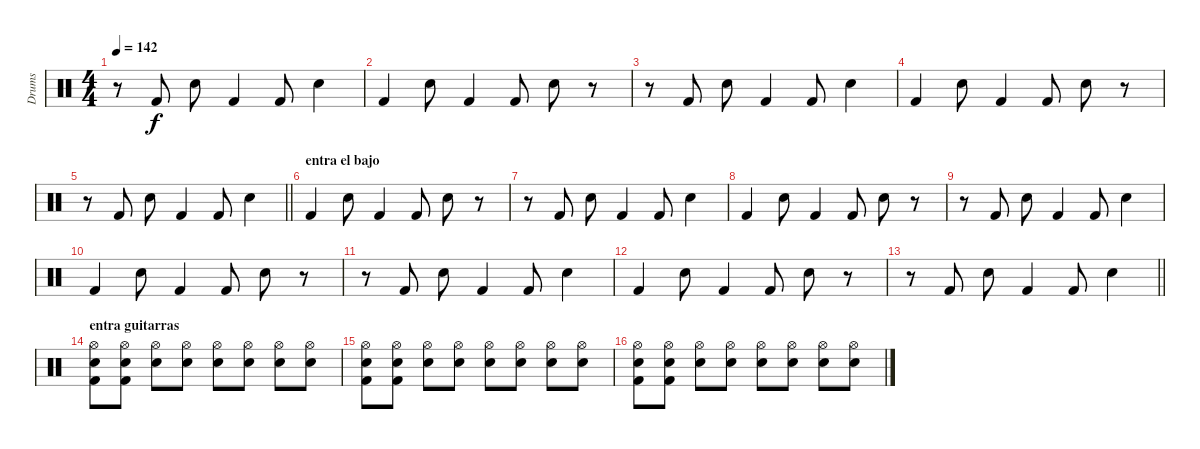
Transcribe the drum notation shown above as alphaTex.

\track ("Drums" "Drums") {instrument percussion}
\staff {score}
\articulation defaults
\ts (4 4)
\tempo 142
\clef neutral
\ks c
r.8{dy f} "Kick (hit) 2".8 "Electric Snare (hit)".8 "Kick (hit) 2".4 "Kick (hit) 2".8 "Electric Snare (hit)".4 |
"Kick (hit) 2".4 "Electric Snare (hit)".8 "Kick (hit) 2".4 "Kick (hit) 2".8 "Electric Snare (hit)".8 r.8 |
r.8 "Kick (hit) 2".8 "Electric Snare (hit)".8 "Kick (hit) 2".4 "Kick (hit) 2".8 "Electric Snare (hit)".4 |
"Kick (hit) 2".4 "Electric Snare (hit)".8 "Kick (hit) 2".4 "Kick (hit) 2".8 "Electric Snare (hit)".8 r.8 |
\barLineRight lightlight
r.8 "Kick (hit) 2".8 "Electric Snare (hit)".8 "Kick (hit) 2".4 "Kick (hit) 2".8 "Electric Snare (hit)".4 |
\section ("" "entra el bajo")
"Kick (hit) 2".4 "Electric Snare (hit)".8 "Kick (hit) 2".4 "Kick (hit) 2".8 "Electric Snare (hit)".8 r.8 |
r.8 "Kick (hit) 2".8 "Electric Snare (hit)".8 "Kick (hit) 2".4 "Kick (hit) 2".8 "Electric Snare (hit)".4 |
"Kick (hit) 2".4 "Electric Snare (hit)".8 "Kick (hit) 2".4 "Kick (hit) 2".8 "Electric Snare (hit)".8 r.8 |
r.8 "Kick (hit) 2".8 "Electric Snare (hit)".8 "Kick (hit) 2".4 "Kick (hit) 2".8 "Electric Snare (hit)".4 |
"Kick (hit) 2".4 "Electric Snare (hit)".8 "Kick (hit) 2".4 "Kick (hit) 2".8 "Electric Snare (hit)".8 r.8 |
r.8 "Kick (hit) 2".8 "Electric Snare (hit)".8 "Kick (hit) 2".4 "Kick (hit) 2".8 "Electric Snare (hit)".4 |
"Kick (hit) 2".4 "Electric Snare (hit)".8 "Kick (hit) 2".4 "Kick (hit) 2".8 "Electric Snare (hit)".8 r.8 |
\barLineRight lightlight
r.8 "Kick (hit) 2".8 "Electric Snare (hit)".8 "Kick (hit) 2".4 "Kick (hit) 2".8 "Electric Snare (hit)".4 |
\section ("" "entra guitarras")
("Electric Snare (hit)" "Hi-Hat (open)" "Kick (hit) 2").8 ("Electric Snare (hit)" "Hi-Hat (open)" "Kick (hit) 2").8 ("Electric Snare (hit)" "Hi-Hat (open)").8 ("Electric Snare (hit)" "Hi-Hat (open)").8 ("Electric Snare (hit)" "Hi-Hat (open)").8 ("Electric Snare (hit)" "Hi-Hat (open)").8 ("Electric Snare (hit)" "Hi-Hat (open)").8 ("Electric Snare (hit)" "Hi-Hat (open)").8 |
("Electric Snare (hit)" "Hi-Hat (open)" "Kick (hit) 2").8 ("Electric Snare (hit)" "Hi-Hat (open)" "Kick (hit) 2").8 ("Electric Snare (hit)" "Hi-Hat (open)").8 ("Electric Snare (hit)" "Hi-Hat (open)").8 ("Electric Snare (hit)" "Hi-Hat (open)").8 ("Electric Snare (hit)" "Hi-Hat (open)").8 ("Electric Snare (hit)" "Hi-Hat (open)").8 ("Electric Snare (hit)" "Hi-Hat (open)").8 |
("Electric Snare (hit)" "Hi-Hat (open)" "Kick (hit) 2").8 ("Electric Snare (hit)" "Hi-Hat (open)" "Kick (hit) 2").8 ("Electric Snare (hit)" "Hi-Hat (open)").8 ("Electric Snare (hit)" "Hi-Hat (open)").8 ("Electric Snare (hit)" "Hi-Hat (open)").8 ("Electric Snare (hit)" "Hi-Hat (open)").8 ("Electric Snare (hit)" "Hi-Hat (open)").8 ("Electric Snare (hit)" "Hi-Hat (open)").8
